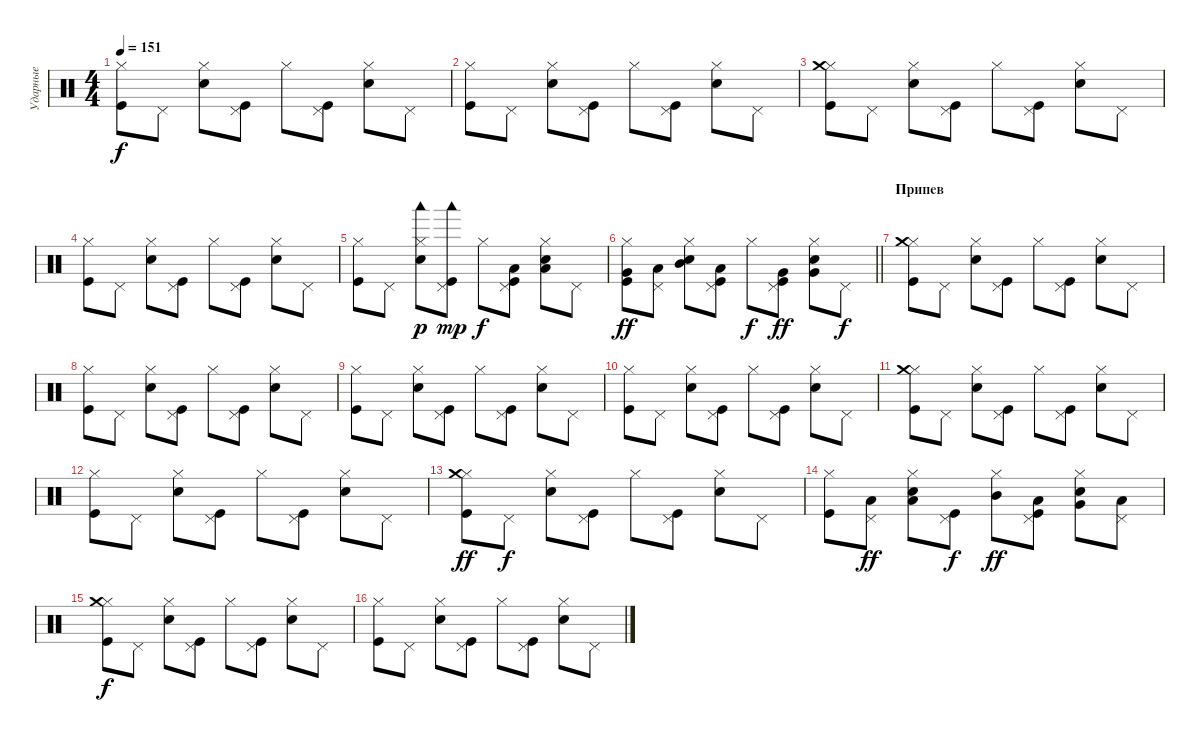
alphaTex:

\track ("Ударные" "Ударные") {instrument percussion}
\staff {score}
\articulation defaults
\ts (4 4)
\tempo 151
\clef neutral
\ks c
("Hi-Hat (closed)" "Kick (hit)").8{dy f} "Pedal Hi-Hat (hit)".8 ("Hi-Hat (closed)" "Snare (hit) 2").8 ("Pedal Hi-Hat (hit)" "Kick (hit)").8 "Hi-Hat (closed)".8 ("Pedal Hi-Hat (hit)" "Kick (hit)").8 ("Hi-Hat (closed)" "Snare (hit) 2").8 "Pedal Hi-Hat (hit)".8 |
("Hi-Hat (closed)" "Kick (hit)").8 "Pedal Hi-Hat (hit)".8 ("Hi-Hat (closed)" "Snare (hit) 2").8 ("Pedal Hi-Hat (hit)" "Kick (hit)").8 "Hi-Hat (closed)".8 ("Pedal Hi-Hat (hit)" "Kick (hit)").8 ("Hi-Hat (closed)" "Snare (hit) 2").8 "Pedal Hi-Hat (hit)".8 |
("Hi-Hat (closed)" "Kick (hit)" "Crash medium (hit)").8 "Pedal Hi-Hat (hit)".8 ("Hi-Hat (closed)" "Snare (hit) 2").8 ("Pedal Hi-Hat (hit)" "Kick (hit)").8 "Hi-Hat (closed)".8 ("Pedal Hi-Hat (hit)" "Kick (hit)").8 ("Hi-Hat (closed)" "Snare (hit) 2").8 "Pedal Hi-Hat (hit)".8 |
("Hi-Hat (closed)" "Kick (hit)").8 "Pedal Hi-Hat (hit)".8 ("Hi-Hat (closed)" "Snare (hit) 2").8 ("Pedal Hi-Hat (hit)" "Kick (hit)").8 "Hi-Hat (closed)".8 ("Pedal Hi-Hat (hit)" "Kick (hit)").8 ("Hi-Hat (closed)" "Snare (hit) 2").8 "Pedal Hi-Hat (hit)".8 |
("Hi-Hat (closed)" "Kick (hit)").8 "Pedal Hi-Hat (hit)".8 ("Hi-Hat (closed)" "Snare (hit) 2" "Woodblock low (hit)").8{dy p} ("Pedal Hi-Hat (hit)" "Kick (hit)" "Woodblock low (hit)").8{dy mp} "Hi-Hat (closed)".8{dy f} ("Pedal Hi-Hat (hit)" "Kick (hit)" "Low Tom (hit)").8 ("Hi-Hat (closed)" "Snare (hit) 2" "Low Tom (hit)").8 "Pedal Hi-Hat (hit)".8 |
\barLineRight lightlight
("Hi-Hat (closed)" "Kick (hit)" "Very Low Tom (hit)").8{dy ff} ("Pedal Hi-Hat (hit)" "Low Tom (hit)").8 ("Hi-Hat (closed)" "Snare (hit) 2" "Mid Tom (hit)").8 ("Pedal Hi-Hat (hit)" "Kick (hit)" "Low Tom (hit)").8 "Hi-Hat (closed)".8{dy f} ("Pedal Hi-Hat (hit)" "Kick (hit)" "Very Low Tom (hit)").8{dy ff} ("Hi-Hat (closed)" "Snare (hit) 2" "Very Low Tom (hit)").8 "Pedal Hi-Hat (hit)".8{dy f} |
\section ("" "Припев")
("Hi-Hat (closed)" "Kick (hit)" "Crash medium (hit)").8 "Pedal Hi-Hat (hit)".8 ("Hi-Hat (closed)" "Snare (hit) 2").8 ("Pedal Hi-Hat (hit)" "Kick (hit)").8 "Hi-Hat (closed)".8 ("Pedal Hi-Hat (hit)" "Kick (hit)").8 ("Hi-Hat (closed)" "Snare (hit) 2").8 "Pedal Hi-Hat (hit)".8 |
("Hi-Hat (closed)" "Kick (hit)").8 "Pedal Hi-Hat (hit)".8 ("Hi-Hat (closed)" "Snare (hit) 2").8 ("Pedal Hi-Hat (hit)" "Kick (hit)").8 "Hi-Hat (closed)".8 ("Pedal Hi-Hat (hit)" "Kick (hit)").8 ("Hi-Hat (closed)" "Snare (hit) 2").8 "Pedal Hi-Hat (hit)".8 |
("Hi-Hat (closed)" "Kick (hit)").8 "Pedal Hi-Hat (hit)".8 ("Hi-Hat (closed)" "Snare (hit) 2").8 ("Pedal Hi-Hat (hit)" "Kick (hit)").8 "Hi-Hat (closed)".8 ("Pedal Hi-Hat (hit)" "Kick (hit)").8 ("Hi-Hat (closed)" "Snare (hit) 2").8 "Pedal Hi-Hat (hit)".8 |
("Hi-Hat (closed)" "Kick (hit)").8 "Pedal Hi-Hat (hit)".8 ("Hi-Hat (closed)" "Snare (hit) 2").8 ("Pedal Hi-Hat (hit)" "Kick (hit)").8 "Hi-Hat (closed)".8 ("Pedal Hi-Hat (hit)" "Kick (hit)").8 ("Hi-Hat (closed)" "Snare (hit) 2").8 "Pedal Hi-Hat (hit)".8 |
("Hi-Hat (closed)" "Kick (hit)" "Crash medium (hit)").8 "Pedal Hi-Hat (hit)".8 ("Hi-Hat (closed)" "Snare (hit) 2").8 ("Pedal Hi-Hat (hit)" "Kick (hit)").8 "Hi-Hat (closed)".8 ("Pedal Hi-Hat (hit)" "Kick (hit)").8 ("Hi-Hat (closed)" "Snare (hit) 2").8 "Pedal Hi-Hat (hit)".8 |
("Hi-Hat (closed)" "Kick (hit)").8 "Pedal Hi-Hat (hit)".8 ("Hi-Hat (closed)" "Snare (hit) 2").8 ("Pedal Hi-Hat (hit)" "Kick (hit)").8 "Hi-Hat (closed)".8 ("Pedal Hi-Hat (hit)" "Kick (hit)").8 ("Hi-Hat (closed)" "Snare (hit) 2").8 "Pedal Hi-Hat (hit)".8 |
("Hi-Hat (closed)" "Kick (hit)" "Crash medium (hit)").8{dy ff} "Pedal Hi-Hat (hit)".8{dy f} ("Hi-Hat (closed)" "Snare (hit) 2").8 ("Pedal Hi-Hat (hit)" "Kick (hit)").8 "Hi-Hat (closed)".8 ("Pedal Hi-Hat (hit)" "Kick (hit)").8 ("Hi-Hat (closed)" "Snare (hit) 2").8 "Pedal Hi-Hat (hit)".8 |
("Hi-Hat (closed)" "Kick (hit)").8 ("Pedal Hi-Hat (hit)" "Low Tom (hit)").8{dy ff} ("Hi-Hat (closed)" "Snare (hit) 2" "Low Tom (hit)").8 ("Pedal Hi-Hat (hit)" "Kick (hit)").8{dy f} ("Hi-Hat (closed)" "Mid Tom (hit)").8{dy ff} ("Pedal Hi-Hat (hit)" "Kick (hit)" "Low Tom (hit)").8 ("Hi-Hat (closed)" "Snare (hit) 2" "Very Low Tom (hit)").8 ("Pedal Hi-Hat (hit)" "Low Tom (hit)").8 |
("Hi-Hat (closed)" "Kick (hit)" "Crash medium (hit)").8{dy f} "Pedal Hi-Hat (hit)".8 ("Hi-Hat (closed)" "Snare (hit) 2").8 ("Pedal Hi-Hat (hit)" "Kick (hit)").8 "Hi-Hat (closed)".8 ("Pedal Hi-Hat (hit)" "Kick (hit)").8 ("Hi-Hat (closed)" "Snare (hit) 2").8 "Pedal Hi-Hat (hit)".8 |
("Hi-Hat (closed)" "Kick (hit)").8 "Pedal Hi-Hat (hit)".8 ("Hi-Hat (closed)" "Snare (hit) 2").8 ("Pedal Hi-Hat (hit)" "Kick (hit)").8 "Hi-Hat (closed)".8 ("Pedal Hi-Hat (hit)" "Kick (hit)").8 ("Hi-Hat (closed)" "Snare (hit) 2").8 "Pedal Hi-Hat (hit)".8
